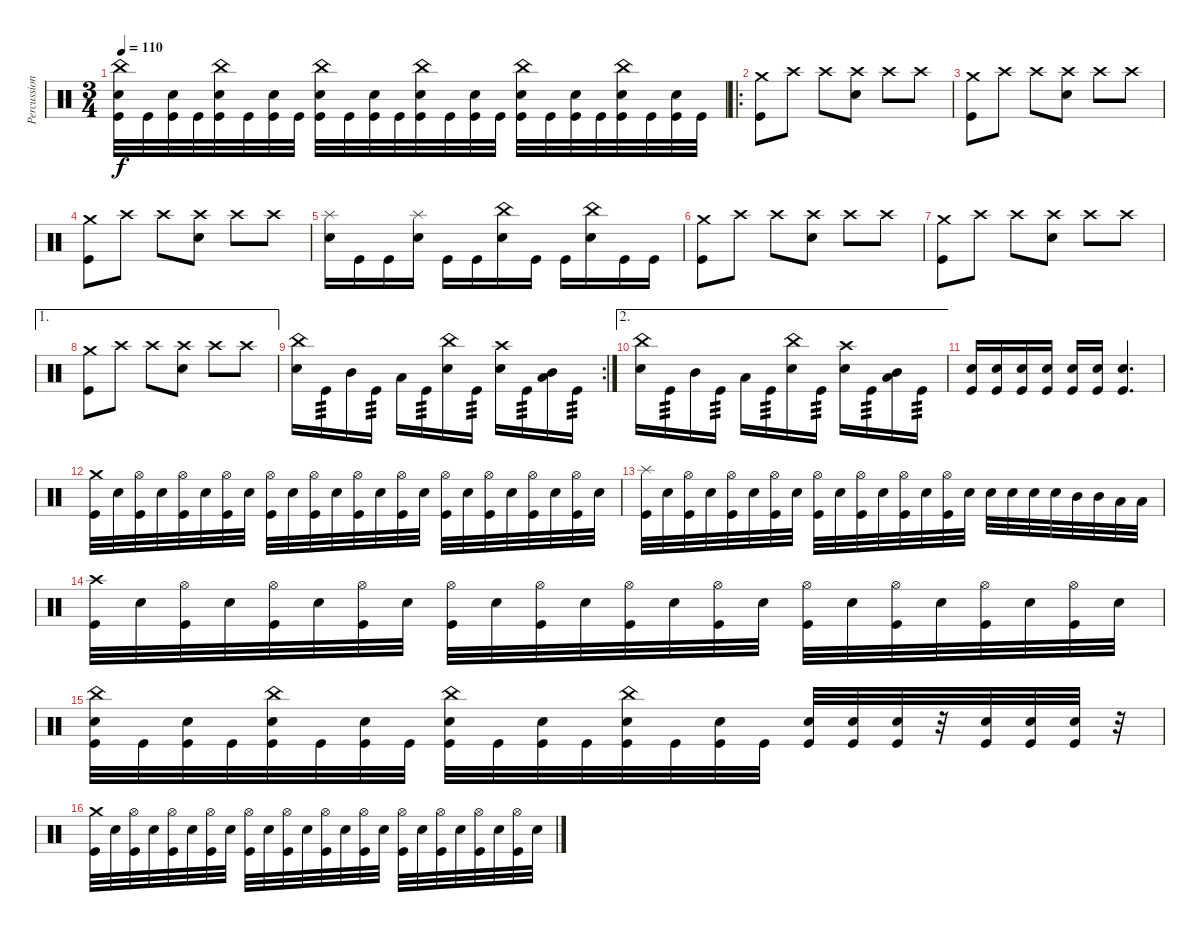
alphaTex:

\track ("Percussion" "Percussion") {instrument percussion}
\staff {score}
\articulation defaults
\ts (3 4)
\tempo 110
\clef neutral
\ks c
("China (hit)" "Electric Snare (hit)" "Kick (hit)").32{dy f} "Kick (hit)".32 ("Electric Snare (hit)" "Kick (hit)").32 "Kick (hit)".32 ("China (hit)" "Electric Snare (hit)" "Kick (hit)").32 "Kick (hit)".32 ("Electric Snare (hit)" "Kick (hit)").32 "Kick (hit)".32 ("China (hit)" "Electric Snare (hit)" "Kick (hit)").32 "Kick (hit)".32 ("Electric Snare (hit)" "Kick (hit)").32 "Kick (hit)".32 ("China (hit)" "Electric Snare (hit)" "Kick (hit)").32 "Kick (hit)".32 ("Electric Snare (hit)" "Kick (hit)").32 "Kick (hit)".32 ("China (hit)" "Electric Snare (hit)" "Kick (hit)").32 "Kick (hit)".32 ("Electric Snare (hit)" "Kick (hit)").32 "Kick (hit)".32 ("China (hit)" "Electric Snare (hit)" "Kick (hit)").32 "Kick (hit)".32 ("Electric Snare (hit)" "Kick (hit)").32 "Kick (hit)".32 |
\ro
("Crash medium (hit)" "Kick (hit)").8 "Crash high (hit)".8 "Crash high (hit)".8 ("Crash high (hit)" "Electric Snare (hit)").8 "Crash high (hit)".8 "Crash high (hit)".8 |
("Crash medium (hit)" "Kick (hit)").8 "Crash high (hit)".8 "Crash high (hit)".8 ("Crash high (hit)" "Electric Snare (hit)").8 "Crash high (hit)".8 "Crash high (hit)".8 |
("Crash medium (hit)" "Kick (hit)").8 "Crash high (hit)".8 "Crash high (hit)".8 ("Crash high (hit)" "Electric Snare (hit)").8 "Crash high (hit)".8 "Crash high (hit)".8 |
("Splash (hit)" "Electric Snare (hit)").16 "Kick (hit)".16 "Kick (hit)".16 ("Splash (hit)" "Electric Snare (hit)").16 "Kick (hit)".16 "Kick (hit)".16 ("China (hit)" "Electric Snare (hit)").16 "Kick (hit)".16 "Kick (hit)".16 ("China (hit)" "Electric Snare (hit)").16 "Kick (hit)".16 "Kick (hit)".16 |
("Crash medium (hit)" "Kick (hit)").8 "Crash high (hit)".8 "Crash high (hit)".8 ("Crash high (hit)" "Electric Snare (hit)").8 "Crash high (hit)".8 "Crash high (hit)".8 |
("Crash medium (hit)" "Kick (hit)").8 "Crash high (hit)".8 "Crash high (hit)".8 ("Crash high (hit)" "Electric Snare (hit)").8 "Crash high (hit)".8 "Crash high (hit)".8 |
\ae 1
("Crash medium (hit)" "Kick (hit)").8 "Crash high (hit)".8 "Crash high (hit)".8 ("Crash high (hit)" "Electric Snare (hit)").8 "Crash high (hit)".8 "Crash high (hit)".8 |
\rc 2
("China (hit)" "Electric Snare (hit)").16 "Kick (hit)".16{tp 3} "Mid Tom (hit)".16 "Kick (hit)".16{tp 3} "Low Tom (hit)".16 "Kick (hit)".16{tp 3} ("China (hit)" "Electric Snare (hit)").16 "Kick (hit)".16{tp 3} ("Crash high (hit)" "Electric Snare (hit)").16 "Kick (hit)".16{tp 3} ("Low Tom (hit)" "Mid Tom (hit)").16 "Kick (hit)".16{tp 3} |
\ae 2
("China (hit)" "Electric Snare (hit)").16 "Kick (hit)".16{tp 3} "Mid Tom (hit)".16 "Kick (hit)".16{tp 3} "Low Tom (hit)".16 "Kick (hit)".16{tp 3} ("China (hit)" "Electric Snare (hit)").16 "Kick (hit)".16{tp 3} ("Crash high (hit)" "Electric Snare (hit)").16 "Kick (hit)".16{tp 3} ("Low Tom (hit)" "Mid Tom (hit)").16 "Kick (hit)".16{tp 3} |
("Electric Snare (hit)" "Kick (hit)").16 ("Electric Snare (hit)" "Kick (hit)").16 ("Electric Snare (hit)" "Kick (hit)").16 ("Electric Snare (hit)" "Kick (hit)").16 ("Electric Snare (hit)" "Kick (hit)").16 ("Electric Snare (hit)" "Kick (hit)").16 ("Electric Snare (hit)" "Kick (hit)").4{d} |
("Crash medium (hit)" "Kick (hit)").32 "Electric Snare (hit)".32 ("Hi-Hat (open)" "Kick (hit)").32 "Electric Snare (hit)".32 ("Hi-Hat (open)" "Kick (hit)").32 "Electric Snare (hit)".32 ("Hi-Hat (open)" "Kick (hit)").32 "Electric Snare (hit)".32 ("Hi-Hat (open)" "Kick (hit)").32 "Electric Snare (hit)".32 ("Hi-Hat (open)" "Kick (hit)").32 "Electric Snare (hit)".32 ("Hi-Hat (open)" "Kick (hit)").32 "Electric Snare (hit)".32 ("Hi-Hat (open)" "Kick (hit)").32 "Electric Snare (hit)".32 ("Hi-Hat (open)" "Kick (hit)").32 "Electric Snare (hit)".32 ("Hi-Hat (open)" "Kick (hit)").32 "Electric Snare (hit)".32 ("Hi-Hat (open)" "Kick (hit)").32 "Electric Snare (hit)".32 ("Hi-Hat (open)" "Kick (hit)").32 "Electric Snare (hit)".32 |
("Splash (hit)" "Kick (hit)").32 "Electric Snare (hit)".32 ("Hi-Hat (open)" "Kick (hit)").32 "Electric Snare (hit)".32 ("Hi-Hat (open)" "Kick (hit)").32 "Electric Snare (hit)".32 ("Hi-Hat (open)" "Kick (hit)").32 "Electric Snare (hit)".32 ("Hi-Hat (open)" "Kick (hit)").32 "Electric Snare (hit)".32 ("Hi-Hat (open)" "Kick (hit)").32 "Electric Snare (hit)".32 ("Hi-Hat (open)" "Kick (hit)").32 "Electric Snare (hit)".32 ("Hi-Hat (open)" "Kick (hit)").32 "Electric Snare (hit)".32 "Electric Snare (hit)".32 "Electric Snare (hit)".32 "Electric Snare (hit)".32 "Electric Snare (hit)".32 "Mid Tom (hit)".32 "Mid Tom (hit)".32 "Low Tom (hit)".32 "Low Tom (hit)".32 |
("Crash high (hit)" "Kick (hit)").32 "Electric Snare (hit)".32 ("Hi-Hat (open)" "Kick (hit)").32 "Electric Snare (hit)".32 ("Hi-Hat (open)" "Kick (hit)").32 "Electric Snare (hit)".32 ("Hi-Hat (open)" "Kick (hit)").32 "Electric Snare (hit)".32 ("Hi-Hat (open)" "Kick (hit)").32 "Electric Snare (hit)".32 ("Hi-Hat (open)" "Kick (hit)").32 "Electric Snare (hit)".32 ("Hi-Hat (open)" "Kick (hit)").32 "Electric Snare (hit)".32 ("Hi-Hat (open)" "Kick (hit)").32 "Electric Snare (hit)".32 ("Hi-Hat (open)" "Kick (hit)").32 "Electric Snare (hit)".32 ("Hi-Hat (open)" "Kick (hit)").32 "Electric Snare (hit)".32 ("Hi-Hat (open)" "Kick (hit)").32 "Electric Snare (hit)".32 ("Hi-Hat (open)" "Kick (hit)").32 "Electric Snare (hit)".32 |
("China (hit)" "Electric Snare (hit)" "Kick (hit)").32 "Kick (hit)".32 ("Electric Snare (hit)" "Kick (hit)").32 "Kick (hit)".32 ("China (hit)" "Electric Snare (hit)" "Kick (hit)").32 "Kick (hit)".32 ("Electric Snare (hit)" "Kick (hit)").32 "Kick (hit)".32 ("China (hit)" "Electric Snare (hit)" "Kick (hit)").32 "Kick (hit)".32 ("Electric Snare (hit)" "Kick (hit)").32 "Kick (hit)".32 ("China (hit)" "Electric Snare (hit)" "Kick (hit)").32 "Kick (hit)".32 ("Electric Snare (hit)" "Kick (hit)").32 "Kick (hit)".32 ("Electric Snare (hit)" "Kick (hit)").32 ("Electric Snare (hit)" "Kick (hit)").32 ("Electric Snare (hit)" "Kick (hit)").32 r.32 ("Electric Snare (hit)" "Kick (hit)").32 ("Electric Snare (hit)" "Kick (hit)").32 ("Electric Snare (hit)" "Kick (hit)").32 r.32 |
("Crash medium (hit)" "Kick (hit)").32 "Electric Snare (hit)".32 ("Hi-Hat (open)" "Kick (hit)").32 "Electric Snare (hit)".32 ("Hi-Hat (open)" "Kick (hit)").32 "Electric Snare (hit)".32 ("Hi-Hat (open)" "Kick (hit)").32 "Electric Snare (hit)".32 ("Hi-Hat (open)" "Kick (hit)").32 "Electric Snare (hit)".32 ("Hi-Hat (open)" "Kick (hit)").32 "Electric Snare (hit)".32 ("Hi-Hat (open)" "Kick (hit)").32 "Electric Snare (hit)".32 ("Hi-Hat (open)" "Kick (hit)").32 "Electric Snare (hit)".32 ("Hi-Hat (open)" "Kick (hit)").32 "Electric Snare (hit)".32 ("Hi-Hat (open)" "Kick (hit)").32 "Electric Snare (hit)".32 ("Hi-Hat (open)" "Kick (hit)").32 "Electric Snare (hit)".32 ("Hi-Hat (open)" "Kick (hit)").32 "Electric Snare (hit)".32
